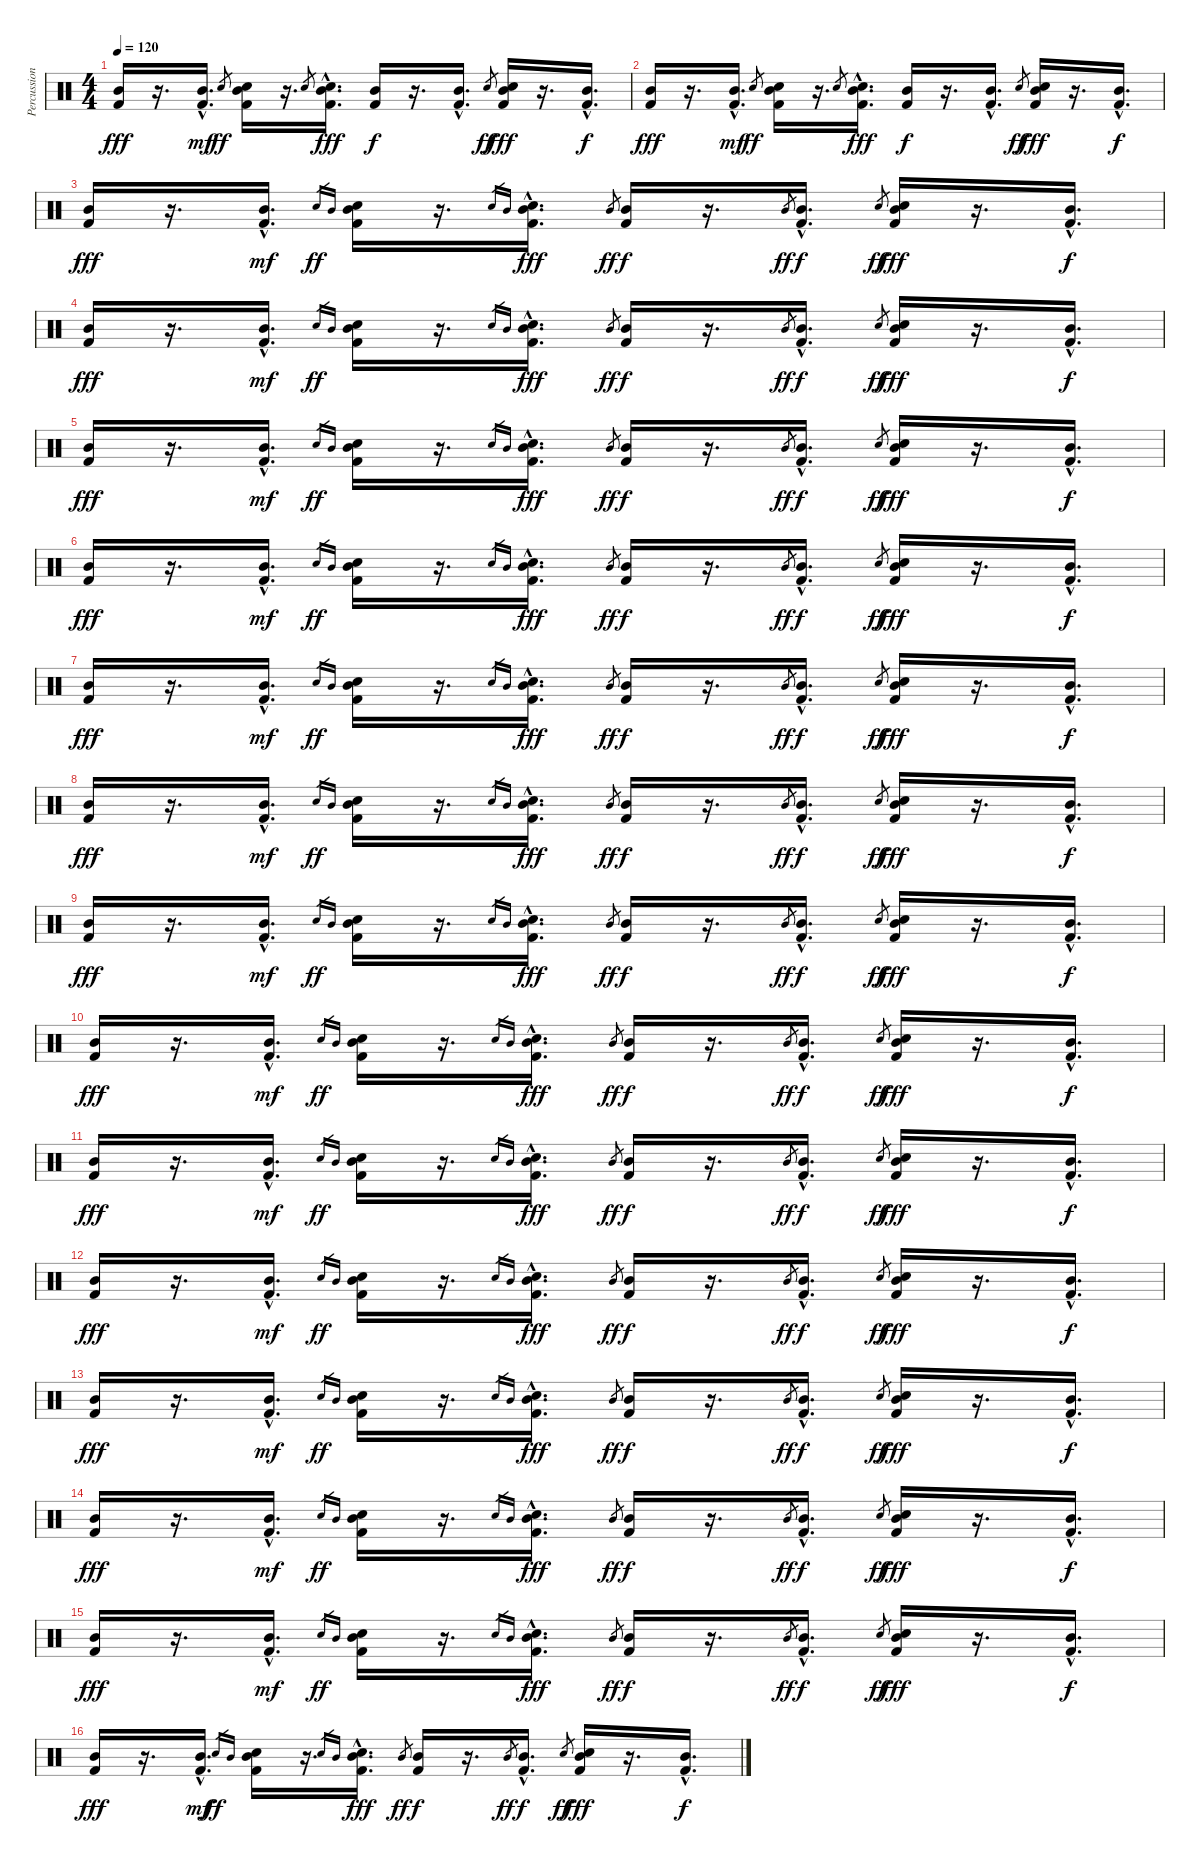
\track ("Percussion" "Percussion") {instrument percussion}
\staff {score}
\articulation defaults
\ts (4 4)
\tempo 120
\clef neutral
\ks c
("Mid Tom (hit)" "Kick (hit) 2").16{dy fff} r.16{d} ("Mid Tom (hit)"{hac} "Kick (hit) 2"{hac}).16{d dy mf} "Hand Clap (hit)".8{gr dy ff} ("Mid Tom (hit)" "Snare (hit) 2" "Kick (hit) 2").16 r.16{d} "Hand Clap (hit)".8{gr} ("Mid Tom (hit)"{hac} "Snare (hit) 2"{hac} "Kick (hit) 2"{hac}).16{d dy fff} ("Mid Tom (hit)" "Kick (hit) 2").16{dy f} r.16{d} ("Mid Tom (hit)"{hac} "Kick (hit) 2"{hac}).16{d} "Hand Clap (hit)".8{gr dy ff} ("Mid Tom (hit)" "Snare (hit) 2" "Kick (hit) 2").16{dy fff} r.16{d} ("Mid Tom (hit)" "Kick (hit) 2"{hac}).16{d dy f} |
("Mid Tom (hit)" "Kick (hit) 2").16{dy fff} r.16{d} ("Mid Tom (hit)"{hac} "Kick (hit) 2"{hac}).16{d dy mf} "Hand Clap (hit)".8{gr dy ff} ("Mid Tom (hit)" "Snare (hit) 2" "Kick (hit) 2").16 r.16{d} "Hand Clap (hit)".8{gr} ("Mid Tom (hit)"{hac} "Snare (hit) 2"{hac} "Kick (hit) 2"{hac}).16{d dy fff} ("Mid Tom (hit)" "Kick (hit) 2").16{dy f} r.16{d} ("Mid Tom (hit)"{hac} "Kick (hit) 2"{hac}).16{d} "Hand Clap (hit)".8{gr dy ff} ("Mid Tom (hit)" "Snare (hit) 2" "Kick (hit) 2").16{dy fff} r.16{d} ("Mid Tom (hit)" "Kick (hit) 2"{hac}).16{d dy f} |
("Mid Tom (hit)" "Kick (hit) 2").16{dy fff} r.16{d} ("Mid Tom (hit)"{hac} "Kick (hit) 2"{hac}).16{d dy mf} "Hand Clap (hit)".16{gr dy ff} "Mid Tom (hit)".16{gr} ("Mid Tom (hit)" "Snare (hit) 2" "Kick (hit) 2").16 r.16{d} "Hand Clap (hit)".16{gr} "Mid Tom (hit)".16{gr} ("Mid Tom (hit)"{hac} "Snare (hit) 2"{hac} "Kick (hit) 2"{hac}).16{d dy fff} "Mid Tom (hit)".8{gr dy ff} ("Mid Tom (hit)" "Kick (hit) 2").16{dy f} r.16{d} "Mid Tom (hit)".8{gr dy ff} ("Mid Tom (hit)"{hac} "Kick (hit) 2"{hac}).16{d dy f} "Hand Clap (hit)".8{gr dy ff} ("Mid Tom (hit)" "Snare (hit) 2" "Kick (hit) 2").16{dy fff} r.16{d} ("Mid Tom (hit)" "Kick (hit) 2"{hac}).16{d dy f} |
("Mid Tom (hit)" "Kick (hit) 2").16{dy fff} r.16{d} ("Mid Tom (hit)"{hac} "Kick (hit) 2"{hac}).16{d dy mf} "Hand Clap (hit)".16{gr dy ff} "Mid Tom (hit)".16{gr} ("Mid Tom (hit)" "Snare (hit) 2" "Kick (hit) 2").16 r.16{d} "Hand Clap (hit)".16{gr} "Mid Tom (hit)".16{gr} ("Mid Tom (hit)"{hac} "Snare (hit) 2"{hac} "Kick (hit) 2"{hac}).16{d dy fff} "Mid Tom (hit)".8{gr dy ff} ("Mid Tom (hit)" "Kick (hit) 2").16{dy f} r.16{d} "Mid Tom (hit)".8{gr dy ff} ("Mid Tom (hit)"{hac} "Kick (hit) 2"{hac}).16{d dy f} "Hand Clap (hit)".8{gr dy ff} ("Mid Tom (hit)" "Snare (hit) 2" "Kick (hit) 2").16{dy fff} r.16{d} ("Mid Tom (hit)" "Kick (hit) 2"{hac}).16{d dy f} |
("Mid Tom (hit)" "Kick (hit) 2").16{dy fff} r.16{d} ("Mid Tom (hit)"{hac} "Kick (hit) 2"{hac}).16{d dy mf} "Hand Clap (hit)".16{gr dy ff} "Mid Tom (hit)".16{gr} ("Mid Tom (hit)" "Snare (hit) 2" "Kick (hit) 2").16 r.16{d} "Hand Clap (hit)".16{gr} "Mid Tom (hit)".16{gr} ("Mid Tom (hit)"{hac} "Snare (hit) 2"{hac} "Kick (hit) 2"{hac}).16{d dy fff} "Mid Tom (hit)".8{gr dy ff} ("Mid Tom (hit)" "Kick (hit) 2").16{dy f} r.16{d} "Mid Tom (hit)".8{gr dy ff} ("Mid Tom (hit)"{hac} "Kick (hit) 2"{hac}).16{d dy f} "Hand Clap (hit)".8{gr dy ff} ("Mid Tom (hit)" "Snare (hit) 2" "Kick (hit) 2").16{dy fff} r.16{d} ("Mid Tom (hit)" "Kick (hit) 2"{hac}).16{d dy f} |
("Mid Tom (hit)" "Kick (hit) 2").16{dy fff} r.16{d} ("Mid Tom (hit)"{hac} "Kick (hit) 2"{hac}).16{d dy mf} "Hand Clap (hit)".16{gr dy ff} "Mid Tom (hit)".16{gr} ("Mid Tom (hit)" "Snare (hit) 2" "Kick (hit) 2").16 r.16{d} "Hand Clap (hit)".16{gr} "Mid Tom (hit)".16{gr} ("Mid Tom (hit)"{hac} "Snare (hit) 2"{hac} "Kick (hit) 2"{hac}).16{d dy fff} "Mid Tom (hit)".8{gr dy ff} ("Mid Tom (hit)" "Kick (hit) 2").16{dy f} r.16{d} "Mid Tom (hit)".8{gr dy ff} ("Mid Tom (hit)"{hac} "Kick (hit) 2"{hac}).16{d dy f} "Hand Clap (hit)".8{gr dy ff} ("Mid Tom (hit)" "Snare (hit) 2" "Kick (hit) 2").16{dy fff} r.16{d} ("Mid Tom (hit)" "Kick (hit) 2"{hac}).16{d dy f} |
("Mid Tom (hit)" "Kick (hit) 2").16{dy fff} r.16{d} ("Mid Tom (hit)"{hac} "Kick (hit) 2"{hac}).16{d dy mf} "Hand Clap (hit)".16{gr dy ff} "Mid Tom (hit)".16{gr} ("Mid Tom (hit)" "Snare (hit) 2" "Kick (hit) 2").16 r.16{d} "Hand Clap (hit)".16{gr} "Mid Tom (hit)".16{gr} ("Mid Tom (hit)"{hac} "Snare (hit) 2"{hac} "Kick (hit) 2"{hac}).16{d dy fff} "Mid Tom (hit)".8{gr dy ff} ("Mid Tom (hit)" "Kick (hit) 2").16{dy f} r.16{d} "Mid Tom (hit)".8{gr dy ff} ("Mid Tom (hit)"{hac} "Kick (hit) 2"{hac}).16{d dy f} "Hand Clap (hit)".8{gr dy ff} ("Mid Tom (hit)" "Snare (hit) 2" "Kick (hit) 2").16{dy fff} r.16{d} ("Mid Tom (hit)" "Kick (hit) 2"{hac}).16{d dy f} |
("Mid Tom (hit)" "Kick (hit) 2").16{dy fff} r.16{d} ("Mid Tom (hit)"{hac} "Kick (hit) 2"{hac}).16{d dy mf} "Hand Clap (hit)".16{gr dy ff} "Mid Tom (hit)".16{gr} ("Mid Tom (hit)" "Snare (hit) 2" "Kick (hit) 2").16 r.16{d} "Hand Clap (hit)".16{gr} "Mid Tom (hit)".16{gr} ("Mid Tom (hit)"{hac} "Snare (hit) 2"{hac} "Kick (hit) 2"{hac}).16{d dy fff} "Mid Tom (hit)".8{gr dy ff} ("Mid Tom (hit)" "Kick (hit) 2").16{dy f} r.16{d} "Mid Tom (hit)".8{gr dy ff} ("Mid Tom (hit)"{hac} "Kick (hit) 2"{hac}).16{d dy f} "Hand Clap (hit)".8{gr dy ff} ("Mid Tom (hit)" "Snare (hit) 2" "Kick (hit) 2").16{dy fff} r.16{d} ("Mid Tom (hit)" "Kick (hit) 2"{hac}).16{d dy f} |
("Mid Tom (hit)" "Kick (hit) 2").16{dy fff} r.16{d} ("Mid Tom (hit)"{hac} "Kick (hit) 2"{hac}).16{d dy mf} "Hand Clap (hit)".16{gr dy ff} "Mid Tom (hit)".16{gr} ("Mid Tom (hit)" "Snare (hit) 2" "Kick (hit) 2").16 r.16{d} "Hand Clap (hit)".16{gr} "Mid Tom (hit)".16{gr} ("Mid Tom (hit)"{hac} "Snare (hit) 2"{hac} "Kick (hit) 2"{hac}).16{d dy fff} "Mid Tom (hit)".8{gr dy ff} ("Mid Tom (hit)" "Kick (hit) 2").16{dy f} r.16{d} "Mid Tom (hit)".8{gr dy ff} ("Mid Tom (hit)"{hac} "Kick (hit) 2"{hac}).16{d dy f} "Hand Clap (hit)".8{gr dy ff} ("Mid Tom (hit)" "Snare (hit) 2" "Kick (hit) 2").16{dy fff} r.16{d} ("Mid Tom (hit)" "Kick (hit) 2"{hac}).16{d dy f} |
("Mid Tom (hit)" "Kick (hit) 2").16{dy fff} r.16{d} ("Mid Tom (hit)"{hac} "Kick (hit) 2"{hac}).16{d dy mf} "Hand Clap (hit)".16{gr dy ff} "Mid Tom (hit)".16{gr} ("Mid Tom (hit)" "Snare (hit) 2" "Kick (hit) 2").16 r.16{d} "Hand Clap (hit)".16{gr} "Mid Tom (hit)".16{gr} ("Mid Tom (hit)"{hac} "Snare (hit) 2"{hac} "Kick (hit) 2"{hac}).16{d dy fff} "Mid Tom (hit)".8{gr dy ff} ("Mid Tom (hit)" "Kick (hit) 2").16{dy f} r.16{d} "Mid Tom (hit)".8{gr dy ff} ("Mid Tom (hit)"{hac} "Kick (hit) 2"{hac}).16{d dy f} "Hand Clap (hit)".8{gr dy ff} ("Mid Tom (hit)" "Snare (hit) 2" "Kick (hit) 2").16{dy fff} r.16{d} ("Mid Tom (hit)" "Kick (hit) 2"{hac}).16{d dy f} |
("Mid Tom (hit)" "Kick (hit) 2").16{dy fff} r.16{d} ("Mid Tom (hit)"{hac} "Kick (hit) 2"{hac}).16{d dy mf} "Hand Clap (hit)".16{gr dy ff} "Mid Tom (hit)".16{gr} ("Mid Tom (hit)" "Snare (hit) 2" "Kick (hit) 2").16 r.16{d} "Hand Clap (hit)".16{gr} "Mid Tom (hit)".16{gr} ("Mid Tom (hit)"{hac} "Snare (hit) 2"{hac} "Kick (hit) 2"{hac}).16{d dy fff} "Mid Tom (hit)".8{gr dy ff} ("Mid Tom (hit)" "Kick (hit) 2").16{dy f} r.16{d} "Mid Tom (hit)".8{gr dy ff} ("Mid Tom (hit)"{hac} "Kick (hit) 2"{hac}).16{d dy f} "Hand Clap (hit)".8{gr dy ff} ("Mid Tom (hit)" "Snare (hit) 2" "Kick (hit) 2").16{dy fff} r.16{d} ("Mid Tom (hit)" "Kick (hit) 2"{hac}).16{d dy f} |
("Mid Tom (hit)" "Kick (hit) 2").16{dy fff} r.16{d} ("Mid Tom (hit)"{hac} "Kick (hit) 2"{hac}).16{d dy mf} "Hand Clap (hit)".16{gr dy ff} "Mid Tom (hit)".16{gr} ("Mid Tom (hit)" "Snare (hit) 2" "Kick (hit) 2").16 r.16{d} "Hand Clap (hit)".16{gr} "Mid Tom (hit)".16{gr} ("Mid Tom (hit)"{hac} "Snare (hit) 2"{hac} "Kick (hit) 2"{hac}).16{d dy fff} "Mid Tom (hit)".8{gr dy ff} ("Mid Tom (hit)" "Kick (hit) 2").16{dy f} r.16{d} "Mid Tom (hit)".8{gr dy ff} ("Mid Tom (hit)"{hac} "Kick (hit) 2"{hac}).16{d dy f} "Hand Clap (hit)".8{gr dy ff} ("Mid Tom (hit)" "Snare (hit) 2" "Kick (hit) 2").16{dy fff} r.16{d} ("Mid Tom (hit)" "Kick (hit) 2"{hac}).16{d dy f} |
("Mid Tom (hit)" "Kick (hit) 2").16{dy fff} r.16{d} ("Mid Tom (hit)"{hac} "Kick (hit) 2"{hac}).16{d dy mf} "Hand Clap (hit)".16{gr dy ff} "Mid Tom (hit)".16{gr} ("Mid Tom (hit)" "Snare (hit) 2" "Kick (hit) 2").16 r.16{d} "Hand Clap (hit)".16{gr} "Mid Tom (hit)".16{gr} ("Mid Tom (hit)"{hac} "Snare (hit) 2"{hac} "Kick (hit) 2"{hac}).16{d dy fff} "Mid Tom (hit)".8{gr dy ff} ("Mid Tom (hit)" "Kick (hit) 2").16{dy f} r.16{d} "Mid Tom (hit)".8{gr dy ff} ("Mid Tom (hit)"{hac} "Kick (hit) 2"{hac}).16{d dy f} "Hand Clap (hit)".8{gr dy ff} ("Mid Tom (hit)" "Snare (hit) 2" "Kick (hit) 2").16{dy fff} r.16{d} ("Mid Tom (hit)" "Kick (hit) 2"{hac}).16{d dy f} |
("Mid Tom (hit)" "Kick (hit) 2").16{dy fff} r.16{d} ("Mid Tom (hit)"{hac} "Kick (hit) 2"{hac}).16{d dy mf} "Hand Clap (hit)".16{gr dy ff} "Mid Tom (hit)".16{gr} ("Mid Tom (hit)" "Snare (hit) 2" "Kick (hit) 2").16 r.16{d} "Hand Clap (hit)".16{gr} "Mid Tom (hit)".16{gr} ("Mid Tom (hit)"{hac} "Snare (hit) 2"{hac} "Kick (hit) 2"{hac}).16{d dy fff} "Mid Tom (hit)".8{gr dy ff} ("Mid Tom (hit)" "Kick (hit) 2").16{dy f} r.16{d} "Mid Tom (hit)".8{gr dy ff} ("Mid Tom (hit)"{hac} "Kick (hit) 2"{hac}).16{d dy f} "Hand Clap (hit)".8{gr dy ff} ("Mid Tom (hit)" "Snare (hit) 2" "Kick (hit) 2").16{dy fff} r.16{d} ("Mid Tom (hit)" "Kick (hit) 2"{hac}).16{d dy f} |
("Mid Tom (hit)" "Kick (hit) 2").16{dy fff} r.16{d} ("Mid Tom (hit)"{hac} "Kick (hit) 2"{hac}).16{d dy mf} "Hand Clap (hit)".16{gr dy ff} "Mid Tom (hit)".16{gr} ("Mid Tom (hit)" "Snare (hit) 2" "Kick (hit) 2").16 r.16{d} "Hand Clap (hit)".16{gr} "Mid Tom (hit)".16{gr} ("Mid Tom (hit)"{hac} "Snare (hit) 2"{hac} "Kick (hit) 2"{hac}).16{d dy fff} "Mid Tom (hit)".8{gr dy ff} ("Mid Tom (hit)" "Kick (hit) 2").16{dy f} r.16{d} "Mid Tom (hit)".8{gr dy ff} ("Mid Tom (hit)"{hac} "Kick (hit) 2"{hac}).16{d dy f} "Hand Clap (hit)".8{gr dy ff} ("Mid Tom (hit)" "Snare (hit) 2" "Kick (hit) 2").16{dy fff} r.16{d} ("Mid Tom (hit)" "Kick (hit) 2"{hac}).16{d dy f} |
("Mid Tom (hit)" "Kick (hit) 2").16{dy fff} r.16{d} ("Mid Tom (hit)"{hac} "Kick (hit) 2"{hac}).16{d dy mf} "Hand Clap (hit)".16{gr dy ff} "Mid Tom (hit)".16{gr} ("Mid Tom (hit)" "Snare (hit) 2" "Kick (hit) 2").16 r.16{d} "Hand Clap (hit)".16{gr} "Mid Tom (hit)".16{gr} ("Mid Tom (hit)"{hac} "Snare (hit) 2"{hac} "Kick (hit) 2"{hac}).16{d dy fff} "Mid Tom (hit)".8{gr dy ff} ("Mid Tom (hit)" "Kick (hit) 2").16{dy f} r.16{d} "Mid Tom (hit)".8{gr dy ff} ("Mid Tom (hit)"{hac} "Kick (hit) 2"{hac}).16{d dy f} "Hand Clap (hit)".8{gr dy ff} ("Mid Tom (hit)" "Snare (hit) 2" "Kick (hit) 2").16{dy fff} r.16{d} ("Mid Tom (hit)" "Kick (hit) 2"{hac}).16{d dy f}
